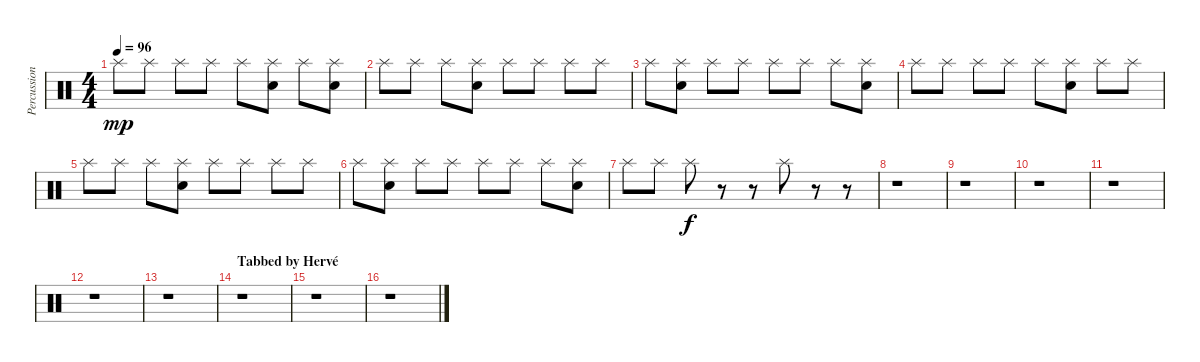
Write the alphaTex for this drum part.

\track ("Percussions" "Percussion") {instrument percussion}
\staff {score}
\articulation defaults
\ts (4 4)
\tempo 96
\clef neutral
\ks c "Splash (hit)".8{dy mp} "Splash (hit)".8 "Splash (hit)".8 "Splash (hit)".8 "Splash (hit)".8
("Splash (hit)" "Electric Snare (hit)").8 "Splash (hit)".8 ("Splash (hit)" "Electric Snare (hit)").8 |
"Splash (hit)".8 "Splash (hit)".8 "Splash (hit)".8 ("Splash (hit)" "Electric Snare (hit)").8 "Splash (hit)".8 "Splash (hit)".8 "Splash (hit)".8 "Splash (hit)".8 |
"Splash (hit)".8 ("Splash (hit)" "Electric Snare (hit)").8 "Splash (hit)".8 "Splash (hit)".8 "Splash (hit)".8 "Splash (hit)".8 "Splash (hit)".8 ("Splash (hit)" "Electric Snare (hit)").8 |
"Splash (hit)".8 "Splash (hit)".8 "Splash (hit)".8 "Splash (hit)".8 "Splash (hit)".8 ("Splash (hit)" "Electric Snare (hit)").8 "Splash (hit)".8 "Splash (hit)".8 |
"Splash (hit)".8 "Splash (hit)".8 "Splash (hit)".8 ("Splash (hit)" "Electric Snare (hit)").8 "Splash (hit)".8 "Splash (hit)".8 "Splash (hit)".8 "Splash (hit)".8 |
"Splash (hit)".8 ("Splash (hit)" "Electric Snare (hit)").8 "Splash (hit)".8 "Splash (hit)".8 "Splash (hit)".8 "Splash (hit)".8 "Splash (hit)".8 ("Splash (hit)" "Electric Snare (hit)").8 |
"Splash (hit)".8 "Splash (hit)".8 "Splash (hit)".8{dy f} r.8 r.8 "Splash (hit)".8 r.8 r.8 |
r.1 |
r.1 |
r.1 |
r.1 |
r.1 |
r.1 |
\section ("" "Tabbed by Hervé")
r.1 |
r.1 |
r.1
